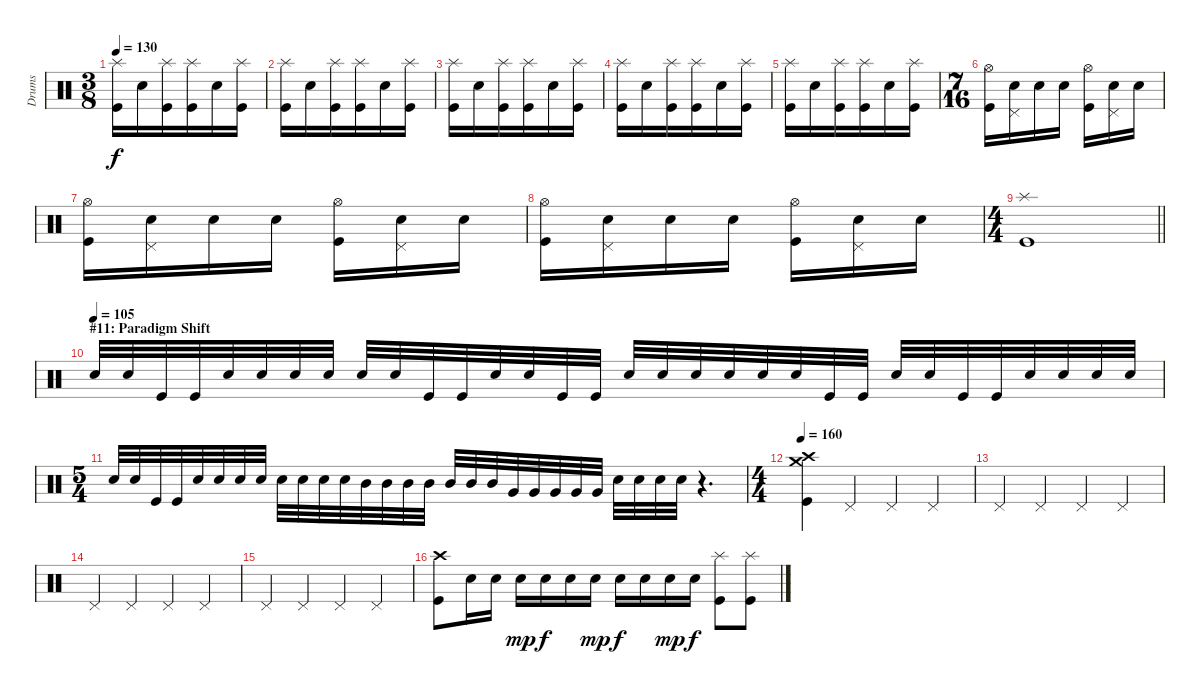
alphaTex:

\track ("Drums" "Drums") {instrument percussion}
\staff {score}
\articulation defaults
\ts (3 8)
\tempo 130
\clef neutral
\ks c
("Splash (hit)" "Kick (hit)").16{dy f} "Snare (hit) 2".16 ("Splash (hit)" "Kick (hit)").16 ("Splash (hit)" "Kick (hit)").16 "Snare (hit) 2".16 ("Splash (hit)" "Kick (hit)").16 |
("Splash (hit)" "Kick (hit)").16 "Snare (hit) 2".16 ("Splash (hit)" "Kick (hit)").16 ("Splash (hit)" "Kick (hit)").16 "Snare (hit) 2".16 ("Splash (hit)" "Kick (hit)").16 |
("Splash (hit)" "Kick (hit)").16 "Snare (hit) 2".16 ("Splash (hit)" "Kick (hit)").16 ("Splash (hit)" "Kick (hit)").16 "Snare (hit) 2".16 ("Splash (hit)" "Kick (hit)").16 |
("Splash (hit)" "Kick (hit)").16 "Snare (hit) 2".16 ("Splash (hit)" "Kick (hit)").16 ("Splash (hit)" "Kick (hit)").16 "Snare (hit) 2".16 ("Splash (hit)" "Kick (hit)").16 |
("Splash (hit)" "Kick (hit)").16 "Snare (hit) 2".16 ("Splash (hit)" "Kick (hit)").16 ("Splash (hit)" "Kick (hit)").16 "Snare (hit) 2".16 ("Splash (hit)" "Kick (hit)").16 |
\ts (7 16)
("Hi-Hat (open)" "Kick (hit)").16 ("Pedal Hi-Hat (hit)" "Snare (hit) 2").16 "Snare (hit) 2".16 "Snare (hit) 2".16 ("Hi-Hat (open)" "Kick (hit)").16 ("Pedal Hi-Hat (hit)" "Snare (hit) 2").16 "Snare (hit) 2".16 |
("Hi-Hat (open)" "Kick (hit)").16 ("Pedal Hi-Hat (hit)" "Snare (hit) 2").16 "Snare (hit) 2".16 "Snare (hit) 2".16 ("Hi-Hat (open)" "Kick (hit)").16 ("Pedal Hi-Hat (hit)" "Snare (hit) 2").16 "Snare (hit) 2".16 |
("Hi-Hat (open)" "Kick (hit)").16 ("Pedal Hi-Hat (hit)" "Snare (hit) 2").16 "Snare (hit) 2".16 "Snare (hit) 2".16 ("Hi-Hat (open)" "Kick (hit)").16 ("Pedal Hi-Hat (hit)" "Snare (hit) 2").16 "Snare (hit) 2".16 |
\ts (4 4)
\barLineRight lightlight
("Splash (hit)" "Kick (hit)").1 |
\section ("" "#11: Paradigm Shift")
\tempo (105)
"Snare (hit) 2".32 "Snare (hit) 2".32 "Kick (hit)".32 "Kick (hit)".32 "Snare (hit) 2".32 "Snare (hit) 2".32 "Snare (hit) 2".32 "Snare (hit) 2".32 "Snare (hit) 2".32 "Snare (hit) 2".32 "Kick (hit)".32 "Kick (hit)".32 "Snare (hit) 2".32 "Snare (hit) 2".32 "Kick (hit)".32 "Kick (hit)".32 "Snare (hit) 2".32 "Snare (hit) 2".32 "Snare (hit) 2".32 "Snare (hit) 2".32 "Snare (hit) 2".32 "Snare (hit) 2".32 "Kick (hit)".32 "Kick (hit)".32 "Snare (hit) 2".32 "Snare (hit) 2".32 "Kick (hit)".32 "Kick (hit)".32 "Snare (hit) 2".32 "Snare (hit) 2".32 "Snare (hit) 2".32 "Snare (hit) 2".32 |
\ts (5 4)
"Snare (hit) 2".32 "Snare (hit) 2".32 "Kick (hit)".32 "Kick (hit)".32 "Snare (hit) 2".32 "Snare (hit) 2".32 "Snare (hit) 2".32 "Snare (hit) 2".32 "Snare (hit) 2".32 "Snare (hit) 2".32 "Snare (hit) 2".32 "Snare (hit) 2".32 "Mid Tom (hit)".32 "Mid Tom (hit)".32 "Mid Tom (hit)".32 "Mid Tom (hit)".32 "Mid Tom (hit)".32 "Mid Tom (hit)".32 "Mid Tom (hit)".32 "Very Low Tom (hit)".32 "Very Low Tom (hit)".32 "Very Low Tom (hit)".32 "Very Low Tom (hit)".32 "Very Low Tom (hit)".32 "Snare (hit) 2".32 "Snare (hit) 2".32 "Snare (hit) 2".32 "Snare (hit) 2".32 r.4{d} |
\ts (4 4)
\tempo 160
("Crash high (hit)" "Crash medium (hit)" "Kick (hit)").4 "Pedal Hi-Hat (hit)".4 "Pedal Hi-Hat (hit)".4 "Pedal Hi-Hat (hit)".4 |
"Pedal Hi-Hat (hit)".4 "Pedal Hi-Hat (hit)".4 "Pedal Hi-Hat (hit)".4 "Pedal Hi-Hat (hit)".4 |
"Pedal Hi-Hat (hit)".4 "Pedal Hi-Hat (hit)".4 "Pedal Hi-Hat (hit)".4 "Pedal Hi-Hat (hit)".4 |
"Pedal Hi-Hat (hit)".4 "Pedal Hi-Hat (hit)".4 "Pedal Hi-Hat (hit)".4 "Pedal Hi-Hat (hit)".4 |
("Crash high (hit)" "Kick (hit)").8 "Snare (hit) 2".16 "Snare (hit) 2".16 "Snare (hit) 2".16{dy mp} "Snare (hit) 2".16{dy f} "Snare (hit) 2".16 "Snare (hit) 2".16{dy mp} "Snare (hit) 2".16{dy f} "Snare (hit) 2".16 "Snare (hit) 2".16{dy mp} "Snare (hit) 2".16{dy f} ("Splash (hit)" "Kick (hit)").8 ("Splash (hit)" "Kick (hit)").8
